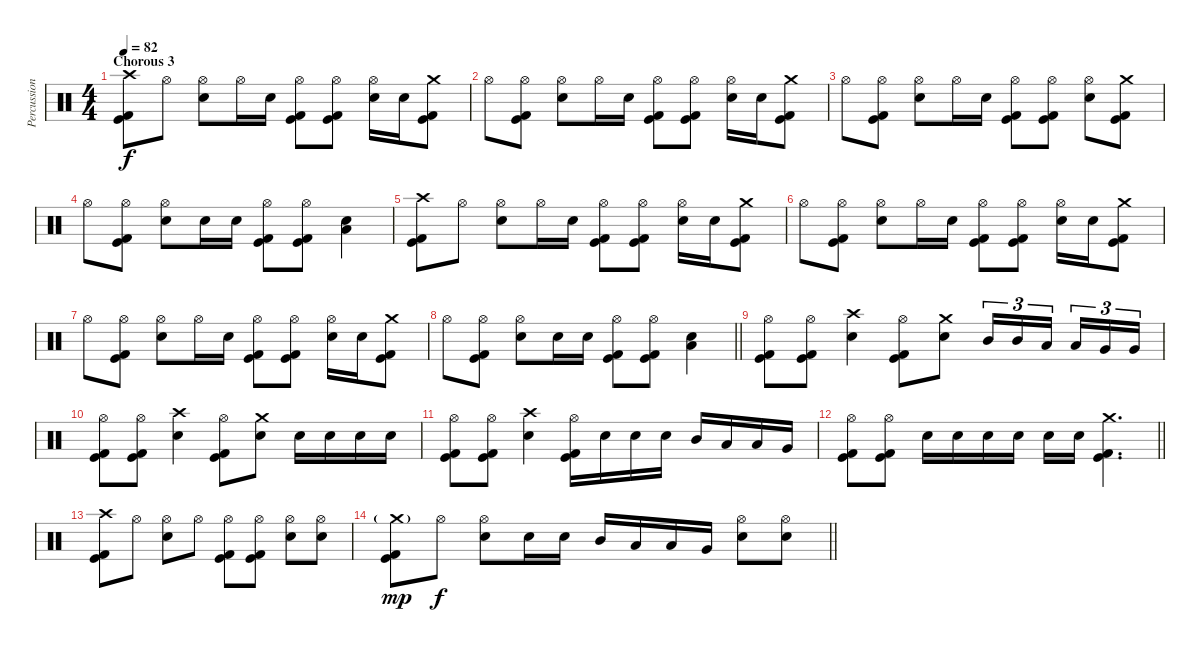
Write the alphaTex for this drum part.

\track ("Percussion" "Percussion") {instrument percussion}
\staff {score}
\articulation defaults
\ts (4 4)
\section ("" "Chorous 3")
\tempo 82
\clef neutral
\ks c
("Crash high (hit)" "Kick (hit)" "Kick (hit) 2").8{dy f} "Hi-Hat (open)".8 ("Hi-Hat (open)" "Electric Snare (hit)").8 "Hi-Hat (open)".16 "Electric Snare (hit)".16 ("Hi-Hat (open)" "Kick (hit)" "Kick (hit) 2").8 ("Hi-Hat (open)" "Kick (hit)" "Kick (hit) 2").8 ("Hi-Hat (open)" "Electric Snare (hit)").16 "Electric Snare (hit)".16 ("Crash medium (hit)" "Kick (hit)" "Kick (hit) 2").8 |
"Hi-Hat (open)".8 ("Hi-Hat (open)" "Kick (hit)" "Kick (hit) 2").8 ("Hi-Hat (open)" "Electric Snare (hit)").8 "Hi-Hat (open)".16 "Electric Snare (hit)".16 ("Hi-Hat (open)" "Kick (hit)" "Kick (hit) 2").8 ("Hi-Hat (open)" "Kick (hit)" "Kick (hit) 2").8 ("Hi-Hat (open)" "Electric Snare (hit)").16 "Electric Snare (hit)".16 ("Crash medium (hit)" "Kick (hit)" "Kick (hit) 2").8 |
"Hi-Hat (open)".8 ("Hi-Hat (open)" "Kick (hit)" "Kick (hit) 2").8 ("Hi-Hat (open)" "Electric Snare (hit)").8 "Hi-Hat (open)".16 "Electric Snare (hit)".16 ("Hi-Hat (open)" "Kick (hit)" "Kick (hit) 2").8 ("Hi-Hat (open)" "Kick (hit)" "Kick (hit) 2").8 ("Hi-Hat (open)" "Electric Snare (hit)").8 ("Crash medium (hit)" "Kick (hit)" "Kick (hit) 2").8 |
"Hi-Hat (open)".8 ("Hi-Hat (open)" "Kick (hit)" "Kick (hit) 2").8 ("Hi-Hat (open)" "Electric Snare (hit)").8 "Electric Snare (hit)".16 "Electric Snare (hit)".16 ("Hi-Hat (open)" "Kick (hit)" "Kick (hit) 2").8 ("Hi-Hat (open)" "Kick (hit)" "Kick (hit) 2").8 ("Electric Snare (hit)" "Low Floor Tom (hit)").4 |
("Crash high (hit)" "Kick (hit)" "Kick (hit) 2").8 "Hi-Hat (open)".8 ("Hi-Hat (open)" "Electric Snare (hit)").8 "Hi-Hat (open)".16 "Electric Snare (hit)".16 ("Hi-Hat (open)" "Kick (hit)" "Kick (hit) 2").8 ("Hi-Hat (open)" "Kick (hit)" "Kick (hit) 2").8 ("Hi-Hat (open)" "Electric Snare (hit)").16 "Electric Snare (hit)".16 ("Crash medium (hit)" "Kick (hit)" "Kick (hit) 2").8 |
"Hi-Hat (open)".8 ("Hi-Hat (open)" "Kick (hit)" "Kick (hit) 2").8 ("Hi-Hat (open)" "Electric Snare (hit)").8 "Hi-Hat (open)".16 "Electric Snare (hit)".16 ("Hi-Hat (open)" "Kick (hit)" "Kick (hit) 2").8 ("Hi-Hat (open)" "Kick (hit)" "Kick (hit) 2").8 ("Hi-Hat (open)" "Electric Snare (hit)").16 "Electric Snare (hit)".16 ("Crash medium (hit)" "Kick (hit)" "Kick (hit) 2").8 |
"Hi-Hat (open)".8 ("Hi-Hat (open)" "Kick (hit)" "Kick (hit) 2").8 ("Hi-Hat (open)" "Electric Snare (hit)").8 "Hi-Hat (open)".16 "Electric Snare (hit)".16 ("Hi-Hat (open)" "Kick (hit)" "Kick (hit) 2").8 ("Hi-Hat (open)" "Kick (hit)" "Kick (hit) 2").8 ("Hi-Hat (open)" "Electric Snare (hit)").16 "Electric Snare (hit)".16 ("Crash medium (hit)" "Kick (hit)" "Kick (hit) 2").8 |
\barLineRight lightlight "Hi-Hat (open)".8
("Hi-Hat (open)" "Kick (hit)" "Kick (hit) 2").8 ("Hi-Hat (open)" "Electric Snare (hit)").8 "Electric Snare (hit)".16 "Electric Snare (hit)".16 ("Hi-Hat (open)" "Kick (hit)" "Kick (hit) 2").8 ("Hi-Hat (open)" "Kick (hit)" "Kick (hit) 2").8 ("Electric Snare (hit)" "Low Floor Tom (hit)").4 |
\section ("" "")
("Hi-Hat (open)" "Kick (hit)" "Kick (hit) 2").8 ("Hi-Hat (open)" "Kick (hit)" "Kick (hit) 2").8 ("Crash high (hit)" "Electric Snare (hit)").4 ("Hi-Hat (open)" "Kick (hit)" "Kick (hit) 2").8 ("Crash medium (hit)" "Electric Snare (hit)").8 "Mid Tom (hit)".16{tu (3 2)} "Mid Tom (hit)".16{tu (3 2)} "Low Tom (hit)".16{tu (3 2) beam splitsecondary} "Low Tom (hit)".16{tu (3 2)} "Very Low Tom (hit)".16{tu (3 2)} "Very Low Tom (hit)".16{tu (3 2)} |
("Hi-Hat (open)" "Kick (hit)" "Kick (hit) 2").8 ("Hi-Hat (open)" "Kick (hit)" "Kick (hit) 2").8 ("Crash high (hit)" "Electric Snare (hit)").4 ("Hi-Hat (open)" "Kick (hit)" "Kick (hit) 2").8 ("Crash medium (hit)" "Electric Snare (hit)").8 "Electric Snare (hit)".16 "Electric Snare (hit)".16 "Electric Snare (hit)".16 "Electric Snare (hit)".16 |
("Hi-Hat (open)" "Kick (hit)" "Kick (hit) 2").8 ("Hi-Hat (open)" "Kick (hit)" "Kick (hit) 2").8 ("Crash high (hit)" "Electric Snare (hit)").4 ("Hi-Hat (open)" "Kick (hit)" "Kick (hit) 2").16 "Electric Snare (hit)".16 "Electric Snare (hit)".16 "Electric Snare (hit)".16 "Mid Tom (hit)".16 "Low Tom (hit)".16 "Low Tom (hit)".16 "Very Low Tom (hit)".16 |
\barLineRight lightlight
("Hi-Hat (open)" "Kick (hit)" "Kick (hit) 2").8 ("Hi-Hat (open)" "Kick (hit)" "Kick (hit) 2").8 "Electric Snare (hit)".16 "Electric Snare (hit)".16 "Electric Snare (hit)".16 "Electric Snare (hit)".16 "Electric Snare (hit)".16 "Electric Snare (hit)".16 ("Crash medium (hit)" "Kick (hit)" "Kick (hit) 2").4{d} |
\section ("" "")
("Crash high (hit)" "Kick (hit)" "Kick (hit) 2").8 "Hi-Hat (open)".8 ("Hi-Hat (open)" "Electric Snare (hit)").8 "Hi-Hat (open)".8 ("Hi-Hat (open)" "Kick (hit)" "Kick (hit) 2").8 ("Hi-Hat (open)" "Kick (hit)" "Kick (hit) 2").8 ("Hi-Hat (open)" "Electric Snare (hit)").8 ("Hi-Hat (open)" "Electric Snare (hit)").8 |
\barLineRight lightlight
("Crash medium (hit)"{g} "Kick (hit)" "Kick (hit) 2").8{dy mp} "Hi-Hat (open)".8{dy f} ("Hi-Hat (open)" "Electric Snare (hit)").8 "Electric Snare (hit)".16 "Electric Snare (hit)".16 "Mid Tom (hit)".16 "Low Tom (hit)".16 "Low Tom (hit)".16 "Very Low Tom (hit)".16 ("Hi-Hat (open)" "Electric Snare (hit)").8 ("Hi-Hat (open)" "Electric Snare (hit)").8
